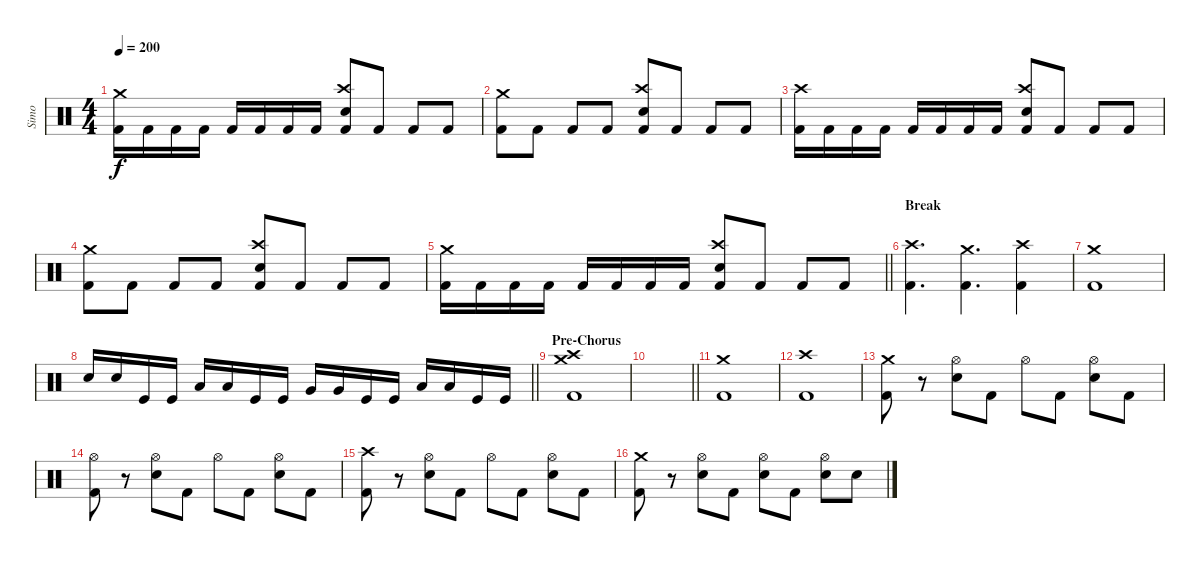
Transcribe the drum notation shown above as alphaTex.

\track ("Simo" "Simo") {instrument percussion bank 121}
\staff {score}
\articulation defaults
\ts (4 4)
\tempo 200
\clef neutral
\ks c
("Kick (hit) 2" "Crash medium (hit)").16{dy f} "Kick (hit) 2".16 "Kick (hit) 2".16 "Kick (hit) 2".16 "Kick (hit) 2".16 "Kick (hit) 2".16 "Kick (hit) 2".16 "Kick (hit) 2".16 ("Kick (hit) 2" "Crash high (hit)" "Electric Snare (hit)").8 "Kick (hit) 2".8 "Kick (hit) 2".8 "Kick (hit) 2".8 |
("Kick (hit) 2" "Crash medium (hit)").8 "Kick (hit) 2".8 "Kick (hit) 2".8 "Kick (hit) 2".8 ("Kick (hit) 2" "Crash high (hit)" "Electric Snare (hit)").8 "Kick (hit) 2".8 "Kick (hit) 2".8 "Kick (hit) 2".8 |
("Kick (hit) 2" "Crash high (hit)").16 "Kick (hit) 2".16 "Kick (hit) 2".16 "Kick (hit) 2".16 "Kick (hit) 2".16 "Kick (hit) 2".16 "Kick (hit) 2".16 "Kick (hit) 2".16 ("Kick (hit) 2" "Crash high (hit)" "Electric Snare (hit)").8 "Kick (hit) 2".8 "Kick (hit) 2".8 "Kick (hit) 2".8 |
("Kick (hit) 2" "Crash medium (hit)").8 "Kick (hit) 2".8 "Kick (hit) 2".8 "Kick (hit) 2".8 ("Kick (hit) 2" "Crash high (hit)" "Electric Snare (hit)").8 "Kick (hit) 2".8 "Kick (hit) 2".8 "Kick (hit) 2".8 |
\barLineRight lightlight
("Kick (hit) 2" "Crash medium (hit)").16 "Kick (hit) 2".16 "Kick (hit) 2".16 "Kick (hit) 2".16 "Kick (hit) 2".16 "Kick (hit) 2".16 "Kick (hit) 2".16 "Kick (hit) 2".16 ("Kick (hit) 2" "Crash high (hit)" "Electric Snare (hit)").8 "Kick (hit) 2".8 "Kick (hit) 2".8 "Kick (hit) 2".8 |
\section ("" "Break")
("Kick (hit) 2" "Crash high (hit)").4{d} ("Kick (hit) 2" "Crash medium (hit)").4{d} ("Kick (hit) 2" "Crash high (hit)").4 |
("Kick (hit) 2" "Crash medium (hit)").1 |
\barLineRight lightlight "Electric Snare (hit)".16 "Electric Snare (hit)".16 "Kick (hit)".16 "Kick (hit)".16 "Low Tom (hit)".16 "Low Tom (hit)".16 "Kick (hit)".16 "Kick (hit)".16 "Very Low Tom (hit)".16 "Very Low Tom (hit)".16 "Kick (hit)".16 "Kick (hit)".16 "Low Floor Tom (hit)".16 "Low Floor Tom (hit)".16 "Kick (hit)".16 "Kick (hit)".16
|
\section ("" "Pre-Chorus")
("Kick (hit) 2" "Crash medium (hit)" "Crash high (hit)").1 |
\barLineRight lightlight
|
("Kick (hit) 2" "Crash medium (hit)").1 |
("Kick (hit) 2" "Crash high (hit)").1 |
("Kick (hit) 2" "Crash medium (hit)").8 r.8 ("Electric Snare (hit)" "Hi-Hat (open)").8 "Kick (hit) 2".8 "Hi-Hat (open)".8 "Kick (hit) 2".8 ("Electric Snare (hit)" "Hi-Hat (open)").8 "Kick (hit) 2".8 |
("Kick (hit) 2" "Hi-Hat (open)").8 r.8 ("Electric Snare (hit)" "Hi-Hat (open)").8 "Kick (hit) 2".8 "Hi-Hat (open)".8 "Kick (hit) 2".8 ("Electric Snare (hit)" "Hi-Hat (open)").8 "Kick (hit) 2".8 |
("Kick (hit) 2" "Crash high (hit)").8 r.8 ("Electric Snare (hit)" "Hi-Hat (open)").8 "Kick (hit) 2".8 "Hi-Hat (open)".8 "Kick (hit) 2".8 ("Electric Snare (hit)" "Hi-Hat (open)").8 "Kick (hit) 2".8 |
("Kick (hit) 2" "Crash medium (hit)").8 r.8 ("Electric Snare (hit)" "Hi-Hat (open)").8 "Kick (hit) 2".8 ("Electric Snare (hit)" "Hi-Hat (open)").8 "Kick (hit) 2".8 ("Electric Snare (hit)" "Hi-Hat (open)").8 "Electric Snare (hit)".8
